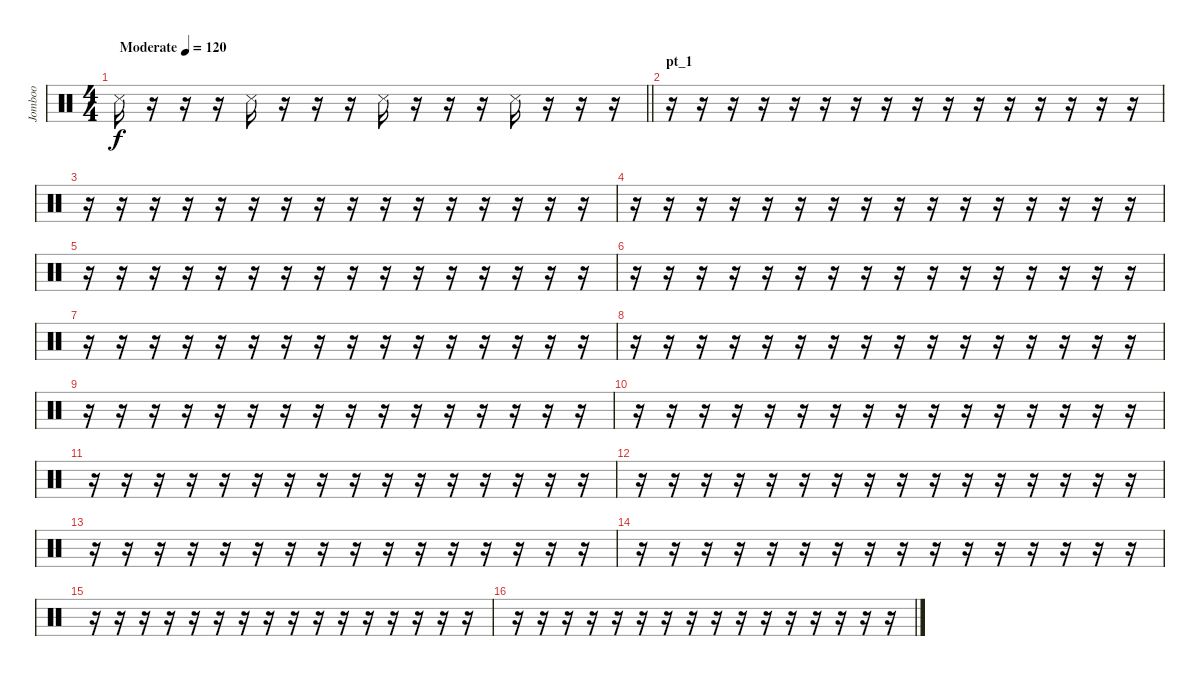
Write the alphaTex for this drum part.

\track ("Jomboo" "Jomboo") {instrument percussion}
\staff
\articulation defaults
\ts (4 4)
\tempo (120 "Moderate")
\clef neutral
\barLineRight lightlight
\ks c "Snare (side stick) 3".16{dy f}
r.16 r.16 r.16 "Snare (side stick) 3".16 r.16 r.16 r.16 "Snare (side stick) 3".16 r.16 r.16 r.16 "Snare (side stick) 3".16 r.16 r.16 r.16 |
\section ("" "pt_1")
r.16 r.16 r.16 r.16 r.16 r.16 r.16 r.16 r.16 r.16 r.16 r.16 r.16 r.16 r.16 r.16 |
r.16 r.16 r.16 r.16 r.16 r.16 r.16 r.16 r.16 r.16 r.16 r.16 r.16 r.16 r.16 r.16 |
r.16 r.16 r.16 r.16 r.16 r.16 r.16 r.16 r.16 r.16 r.16 r.16 r.16 r.16 r.16 r.16 |
r.16 r.16 r.16 r.16 r.16 r.16 r.16 r.16 r.16 r.16 r.16 r.16 r.16 r.16 r.16 r.16 |
r.16 r.16 r.16 r.16 r.16 r.16 r.16 r.16 r.16 r.16 r.16 r.16 r.16 r.16 r.16 r.16 |
r.16 r.16 r.16 r.16 r.16 r.16 r.16 r.16 r.16 r.16 r.16 r.16 r.16 r.16 r.16 r.16 |
r.16 r.16 r.16 r.16 r.16 r.16 r.16 r.16 r.16 r.16 r.16 r.16 r.16 r.16 r.16 r.16 |
r.16 r.16 r.16 r.16 r.16 r.16 r.16 r.16 r.16 r.16 r.16 r.16 r.16 r.16 r.16 r.16 |
r.16 r.16 r.16 r.16 r.16 r.16 r.16 r.16 r.16 r.16 r.16 r.16 r.16 r.16 r.16 r.16 |
r.16 r.16 r.16 r.16 r.16 r.16 r.16 r.16 r.16 r.16 r.16 r.16 r.16 r.16 r.16 r.16 |
r.16 r.16 r.16 r.16 r.16 r.16 r.16 r.16 r.16 r.16 r.16 r.16 r.16 r.16 r.16 r.16 |
r.16 r.16 r.16 r.16 r.16 r.16 r.16 r.16 r.16 r.16 r.16 r.16 r.16 r.16 r.16 r.16 |
r.16 r.16 r.16 r.16 r.16 r.16 r.16 r.16 r.16 r.16 r.16 r.16 r.16 r.16 r.16 r.16 |
r.16 r.16 r.16 r.16 r.16 r.16 r.16 r.16 r.16 r.16 r.16 r.16 r.16 r.16 r.16 r.16 |
r.16 r.16 r.16 r.16 r.16 r.16 r.16 r.16 r.16 r.16 r.16 r.16 r.16 r.16 r.16 r.16
